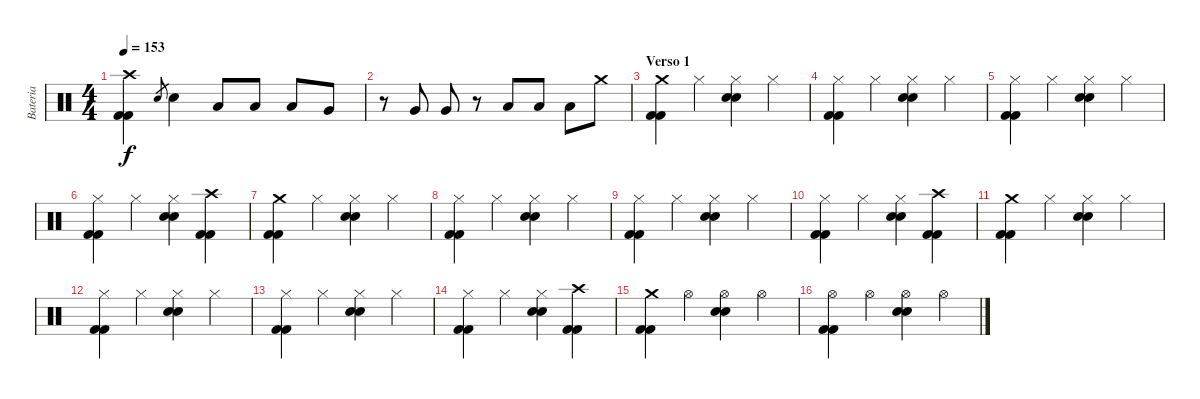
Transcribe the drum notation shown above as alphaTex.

\track ("Bateria" "Bateria") {instrument percussion}
\staff {score}
\articulation defaults
\ts (4 4)
\tempo 153
\clef neutral
\ks c
("Crash high (hit)" "Kick (hit) 2" "Kick (hit) 2").4{dy f} "Snare (hit) 2".8{gr} "Snare (hit) 2".4 "Low Tom (hit)".8 "Low Tom (hit)".8 "Low Tom (hit)".8 "Very Low Tom (hit)".8 |
r.8 "Very Low Tom (hit)".8 "Very Low Tom (hit)".8 r.8 "Low Floor Tom (hit)".8 "Low Floor Tom (hit)".8 "Low Floor Tom (hit)".8 "Crash medium (hit)".8 |
\section ("" "Verso 1")
("Crash medium (hit)" "Kick (hit) 2" "Kick (hit) 2").4 "Hi-Hat (closed)".4 ("Hi-Hat (closed)" "Snare (hit) 2" "Snare (hit) 2").4 "Hi-Hat (closed)".4 |
("Hi-Hat (closed)" "Kick (hit) 2" "Kick (hit) 2").4 "Hi-Hat (closed)".4 ("Hi-Hat (closed)" "Snare (hit) 2" "Snare (hit) 2").4 "Hi-Hat (closed)".4 |
("Hi-Hat (closed)" "Kick (hit) 2" "Kick (hit) 2").4 "Hi-Hat (closed)".4 ("Hi-Hat (closed)" "Snare (hit) 2" "Snare (hit) 2").4 "Hi-Hat (closed)".4 |
("Hi-Hat (closed)" "Kick (hit) 2" "Kick (hit) 2").4 "Hi-Hat (closed)".4 ("Hi-Hat (closed)" "Snare (hit) 2" "Snare (hit) 2").4 ("Crash high (hit)" "Kick (hit) 2" "Kick (hit) 2").4 |
("Crash medium (hit)" "Kick (hit) 2" "Kick (hit) 2").4 "Hi-Hat (closed)".4 ("Hi-Hat (closed)" "Snare (hit) 2" "Snare (hit) 2").4 "Hi-Hat (closed)".4 |
("Hi-Hat (closed)" "Kick (hit) 2" "Kick (hit) 2").4 "Hi-Hat (closed)".4 ("Hi-Hat (closed)" "Snare (hit) 2" "Snare (hit) 2").4 "Hi-Hat (closed)".4 |
("Hi-Hat (closed)" "Kick (hit) 2" "Kick (hit) 2").4 "Hi-Hat (closed)".4 ("Hi-Hat (closed)" "Snare (hit) 2" "Snare (hit) 2").4 "Hi-Hat (closed)".4 |
("Hi-Hat (closed)" "Kick (hit) 2" "Kick (hit) 2").4 "Hi-Hat (closed)".4 ("Hi-Hat (closed)" "Snare (hit) 2" "Snare (hit) 2").4 ("Crash high (hit)" "Kick (hit) 2" "Kick (hit) 2").4 |
("Crash medium (hit)" "Kick (hit) 2" "Kick (hit) 2").4 "Hi-Hat (closed)".4 ("Hi-Hat (closed)" "Snare (hit) 2" "Snare (hit) 2").4 "Hi-Hat (closed)".4 |
("Hi-Hat (closed)" "Kick (hit) 2" "Kick (hit) 2").4 "Hi-Hat (closed)".4 ("Hi-Hat (closed)" "Snare (hit) 2" "Snare (hit) 2").4 "Hi-Hat (closed)".4 |
("Hi-Hat (closed)" "Kick (hit) 2" "Kick (hit) 2").4 "Hi-Hat (closed)".4 ("Hi-Hat (closed)" "Snare (hit) 2" "Snare (hit) 2").4 "Hi-Hat (closed)".4 |
("Hi-Hat (closed)" "Kick (hit) 2" "Kick (hit) 2").4 "Hi-Hat (closed)".4 ("Hi-Hat (closed)" "Snare (hit) 2" "Snare (hit) 2").4 ("Crash high (hit)" "Kick (hit) 2" "Kick (hit) 2").4 |
("Crash medium (hit)" "Kick (hit) 2" "Kick (hit) 2").4 "Hi-Hat (open)".4 ("Hi-Hat (open)" "Snare (hit) 2" "Snare (hit) 2").4 "Hi-Hat (open)".4 |
("Hi-Hat (open)" "Kick (hit) 2" "Kick (hit) 2").4 "Hi-Hat (open)".4 ("Hi-Hat (open)" "Snare (hit) 2" "Snare (hit) 2").4 "Hi-Hat (open)".4
